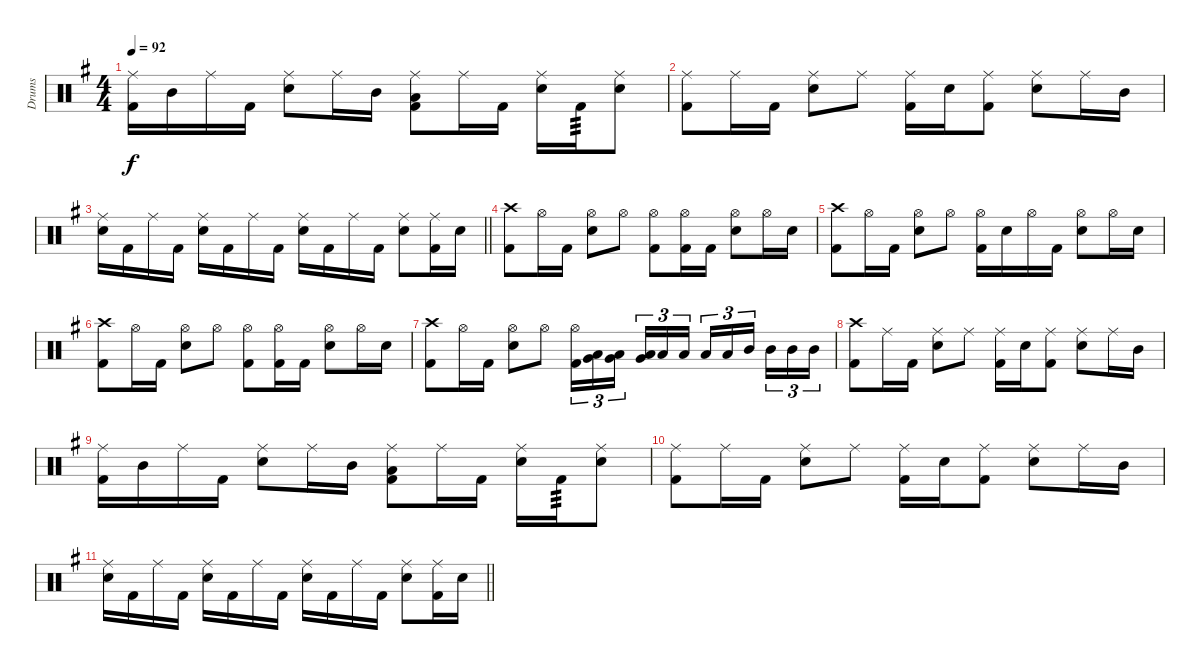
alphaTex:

\track ("Drums" "Drums") {instrument percussion}
\staff {score}
\articulation defaults
\ts (4 4)
\tempo 92
\clef neutral
\ks g
("Ride (middle)" "Kick (hit) 2").16{dy f} "Mid Tom (hit)".16 "Ride (middle)".16 "Kick (hit) 2".16 ("Ride (middle)" "Electric Snare (hit)").8 "Ride (middle)".16 "Mid Tom (hit)".16 ("Ride (middle)" "Low Tom (hit)" "Kick (hit) 2").8 "Ride (middle)".16 "Kick (hit) 2".16 ("Ride (middle)" "Electric Snare (hit)").16 "Kick (hit) 2".16{tp 3} ("Ride (middle)" "Electric Snare (hit)").8 |
("Ride (middle)" "Kick (hit) 2").8 "Ride (middle)".16 "Kick (hit) 2".16 ("Ride (middle)" "Electric Snare (hit)").8 "Ride (middle)".8 ("Ride (middle)" "Kick (hit) 2").16 "Electric Snare (hit)".16 ("Ride (middle)" "Kick (hit) 2").8 ("Ride (middle)" "Electric Snare (hit)").8 "Ride (middle)".16 "Mid Tom (hit)".16 |
\barLineRight lightlight
("Ride (middle)" "Electric Snare (hit)").16 "Kick (hit) 2".16 "Ride (middle)".16 "Kick (hit) 2".16 ("Ride (middle)" "Electric Snare (hit)").16 "Kick (hit) 2".16 "Ride (middle)".16 "Kick (hit) 2".16 ("Ride (middle)" "Electric Snare (hit)").16 "Kick (hit) 2".16 "Ride (middle)".16 "Kick (hit) 2".16 ("Ride (middle)" "Electric Snare (hit)").8 ("Ride (middle)" "Kick (hit) 2").16 "Electric Snare (hit)".16 |
\section ("" "")
("Crash high (hit)" "Kick (hit) 2").8 "Hi-Hat (open)".16 "Kick (hit) 2".16 ("Hi-Hat (open)" "Electric Snare (hit)").8 "Hi-Hat (open)".8 ("Hi-Hat (open)" "Kick (hit) 2").8 ("Hi-Hat (open)" "Kick (hit) 2").16 "Kick (hit) 2".16 ("Hi-Hat (open)" "Electric Snare (hit)").8 "Hi-Hat (open)".16 "Electric Snare (hit)".16 |
("Crash high (hit)" "Kick (hit) 2").8 "Hi-Hat (open)".16 "Kick (hit) 2".16 ("Hi-Hat (open)" "Electric Snare (hit)").8 "Hi-Hat (open)".8 ("Hi-Hat (open)" "Kick (hit) 2").16 "Electric Snare (hit)".16 "Hi-Hat (open)".16 "Kick (hit) 2".16 ("Hi-Hat (open)" "Electric Snare (hit)").8 "Hi-Hat (open)".16 "Electric Snare (hit)".16 |
("Crash high (hit)" "Kick (hit) 2").8 "Hi-Hat (open)".16 "Kick (hit) 2".16 ("Hi-Hat (open)" "Electric Snare (hit)").8 "Hi-Hat (open)".8 ("Hi-Hat (open)" "Kick (hit) 2").8 ("Hi-Hat (open)" "Kick (hit) 2").16 "Kick (hit) 2".16 ("Hi-Hat (open)" "Electric Snare (hit)").8 "Hi-Hat (open)".16 "Electric Snare (hit)".16 |
("Crash high (hit)" "Kick (hit) 2").8 "Hi-Hat (open)".16 "Kick (hit) 2".16 ("Hi-Hat (open)" "Electric Snare (hit)").8 "Hi-Hat (open)".8 ("Hi-Hat (open)" "Kick (hit) 2").16{tu (3 2)} ("Very Low Tom (hit)" "Low Floor Tom (hit)").16{tu (3 2)} ("Very Low Tom (hit)" "Low Floor Tom (hit)").16{tu (3 2) beam splitsecondary} ("Very Low Tom (hit)" "Low Floor Tom (hit)").16{tu (3 2)} "Low Tom (hit)".16{tu (3 2)} "Low Tom (hit)".16{tu (3 2)} "Low Tom (hit)".16{tu (3 2)} "Low Tom (hit)".16{tu (3 2)} "Mid Tom (hit)".16{tu (3 2) beam splitsecondary} "Mid Tom (hit)".16{tu (3 2)} "Mid Tom (hit)".16{tu (3 2)} "Mid Tom (hit)".16{tu (3 2)} |
("Crash high (hit)" "Kick (hit) 2").8 "Ride (middle)".16 "Kick (hit) 2".16 ("Ride (middle)" "Electric Snare (hit)").8 "Ride (middle)".8 ("Ride (middle)" "Kick (hit) 2").16 "Electric Snare (hit)".16 ("Ride (middle)" "Kick (hit) 2").8 ("Ride (middle)" "Electric Snare (hit)").8 "Ride (middle)".16 "Mid Tom (hit)".16 |
("Ride (middle)" "Kick (hit) 2").16 "Mid Tom (hit)".16 "Ride (middle)".16 "Kick (hit) 2".16 ("Ride (middle)" "Electric Snare (hit)").8 "Ride (middle)".16 "Mid Tom (hit)".16 ("Ride (middle)" "Low Tom (hit)" "Kick (hit) 2").8 "Ride (middle)".16 "Kick (hit) 2".16 ("Ride (middle)" "Electric Snare (hit)").16 "Kick (hit) 2".16{tp 3} ("Ride (middle)" "Electric Snare (hit)").8 |
("Ride (middle)" "Kick (hit) 2").8 "Ride (middle)".16 "Kick (hit) 2".16 ("Ride (middle)" "Electric Snare (hit)").8 "Ride (middle)".8 ("Ride (middle)" "Kick (hit) 2").16 "Electric Snare (hit)".16 ("Ride (middle)" "Kick (hit) 2").8 ("Ride (middle)" "Electric Snare (hit)").8 "Ride (middle)".16 "Mid Tom (hit)".16 |
\barLineRight lightlight
("Ride (middle)" "Electric Snare (hit)").16 "Kick (hit) 2".16 "Ride (middle)".16 "Kick (hit) 2".16 ("Ride (middle)" "Electric Snare (hit)").16 "Kick (hit) 2".16 "Ride (middle)".16 "Kick (hit) 2".16 ("Ride (middle)" "Electric Snare (hit)").16 "Kick (hit) 2".16 "Ride (middle)".16 "Kick (hit) 2".16 ("Ride (middle)" "Electric Snare (hit)").8 ("Ride (middle)" "Kick (hit) 2").16 "Electric Snare (hit)".16
